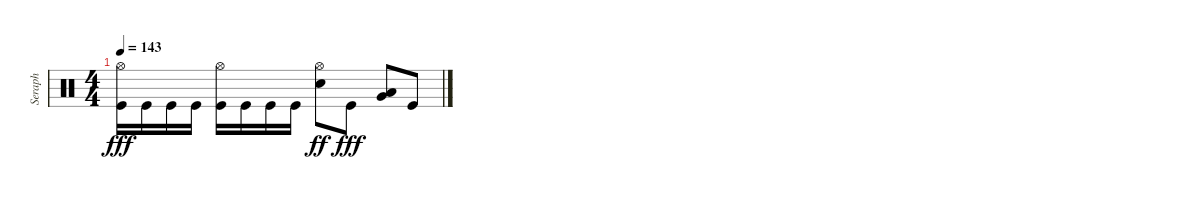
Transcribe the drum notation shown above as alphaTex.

\track ("Seraph" "Seraph") {instrument percussion}
\staff {score}
\articulation defaults
\ts (4 4)
\tempo 143
\clef neutral
\ks c
("Hi-Hat (open)" "Kick (hit)").16{dy fff} "Kick (hit)".16 "Kick (hit)".16 "Kick (hit)".16 ("Hi-Hat (open)" "Kick (hit)").16 "Kick (hit)".16 "Kick (hit)".16 "Kick (hit)".16 ("Hi-Hat (open)" "Electric Snare (hit)").8{dy ff} "Kick (hit)".8{dy fff} ("Very Low Tom (hit)" "Low Floor Tom (hit)").8 "Kick (hit)".8
